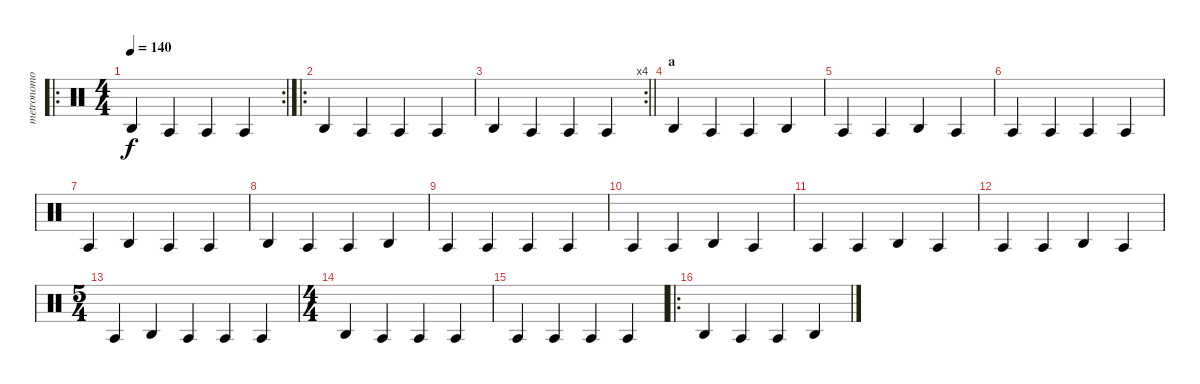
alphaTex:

\track ("metronomo" "metronomo") {instrument percussion}
\staff {score}
\articulation defaults
\ro
\rc 2
\ts (4 4)
\tempo 140
\clef neutral
\ks c "Agogo high (hit)".4{dy f} "Agogo tow (hit)".4 "Agogo tow (hit)".4 "Agogo tow (hit)".4
|
\ro "Agogo high (hit)".4 "Agogo tow (hit)".4 "Agogo tow (hit)".4 "Agogo tow (hit)".4
|
\rc 4
\barLineRight lightlight "Agogo high (hit)".4 "Agogo tow (hit)".4 "Agogo tow (hit)".4 "Agogo tow (hit)".4
|
\section ("" "a")
"Agogo high (hit)".4 "Agogo tow (hit)".4 "Agogo tow (hit)".4 "Agogo high (hit)".4 |
"Agogo tow (hit)".4 "Agogo tow (hit)".4 "Agogo high (hit)".4 "Agogo tow (hit)".4 |
"Agogo tow (hit)".4 "Agogo tow (hit)".4 "Agogo tow (hit)".4 "Agogo tow (hit)".4 |
"Agogo tow (hit)".4 "Agogo high (hit)".4 "Agogo tow (hit)".4 "Agogo tow (hit)".4 |
"Agogo high (hit)".4 "Agogo tow (hit)".4 "Agogo tow (hit)".4 "Agogo high (hit)".4 |
"Agogo tow (hit)".4 "Agogo tow (hit)".4 "Agogo tow (hit)".4 "Agogo tow (hit)".4 |
"Agogo tow (hit)".4 "Agogo tow (hit)".4 "Agogo high (hit)".4 "Agogo tow (hit)".4 |
"Agogo tow (hit)".4 "Agogo tow (hit)".4 "Agogo high (hit)".4 "Agogo tow (hit)".4 |
"Agogo tow (hit)".4 "Agogo tow (hit)".4 "Agogo high (hit)".4 "Agogo tow (hit)".4 |
\ts (5 4)
"Agogo tow (hit)".4 "Agogo high (hit)".4 "Agogo tow (hit)".4 "Agogo tow (hit)".4 "Agogo tow (hit)".4 |
\ts (4 4)
"Agogo high (hit)".4 "Agogo tow (hit)".4 "Agogo tow (hit)".4 "Agogo tow (hit)".4 |
"Agogo tow (hit)".4 "Agogo tow (hit)".4 "Agogo tow (hit)".4 "Agogo tow (hit)".4 |
\ro "Agogo high (hit)".4 "Agogo tow (hit)".4 "Agogo tow (hit)".4 "Agogo high (hit)".4
